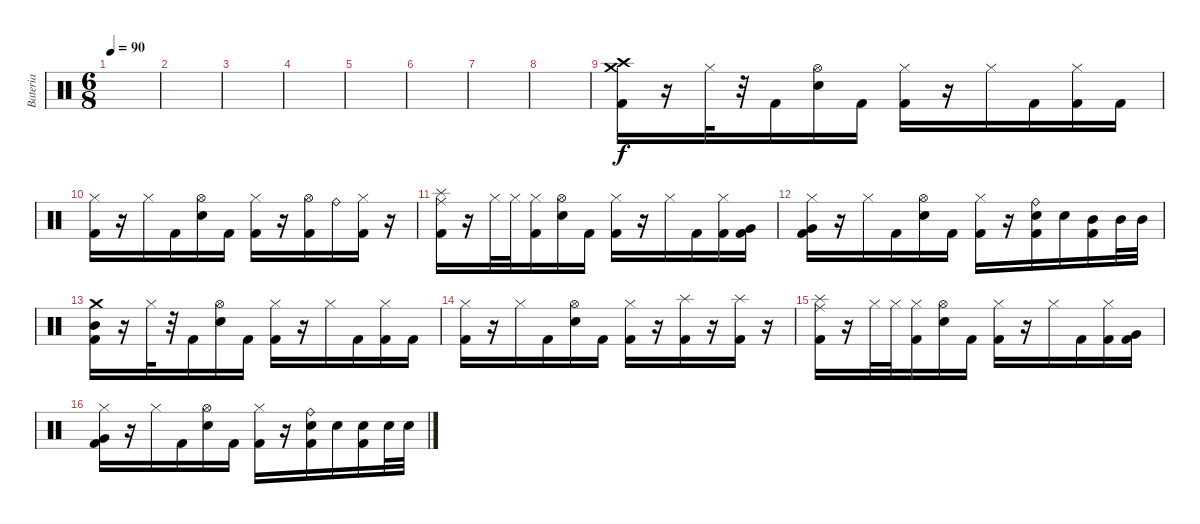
\track ("Bateria" "Bateria") {instrument percussion}
\staff {score}
\articulation defaults
\ts (6 8)
\tempo 90
\clef neutral
\ks c
|
|
|
|
|
|
|
|
("Crash medium (hit)" "Crash high (hit)" "Kick (hit) 2").16 r.16 "Hi-Hat (closed)".32 r.32 "Kick (hit) 2".16 ("Hi-Hat (open)" "Electric Snare (hit)").16 "Kick (hit) 2".16 ("Hi-Hat (closed)" "Kick (hit) 2").16 r.16 "Hi-Hat (closed)".16 "Kick (hit) 2".16 ("Hi-Hat (closed)" "Kick (hit) 2").16 "Kick (hit) 2".16 |
("Hi-Hat (closed)" "Kick (hit) 2").16 r.16 "Hi-Hat (closed)".16 "Kick (hit) 2".16 ("Hi-Hat (open)" "Electric Snare (hit)").16 "Kick (hit) 2".16 ("Hi-Hat (closed)" "Kick (hit) 2").16 r.16 ("Hi-Hat (open)" "Kick (hit) 2").16 "Ride (bell)".16 ("Hi-Hat (closed)" "Kick (hit) 2").16 r.16 |
("Splash (hit)" "Ride (middle)" "Kick (hit) 2").16 r.16 "Hi-Hat (closed)".32 "Hi-Hat (closed)".32 ("Hi-Hat (closed)" "Kick (hit) 2").16 ("Hi-Hat (open)" "Electric Snare (hit)").16 "Kick (hit) 2".16 ("Hi-Hat (closed)" "Kick (hit) 2").16 r.16 "Hi-Hat (closed)".16 "Kick (hit) 2".16 ("Hi-Hat (closed)" "Kick (hit) 2").16 ("Very Low Tom (hit)" "Kick (hit) 2").16 |
("Hi-Hat (closed)" "Very Low Tom (hit)" "Kick (hit) 2").16 r.16 "Hi-Hat (closed)".16 "Kick (hit) 2".16 ("Hi-Hat (open)" "Electric Snare (hit)").16 "Kick (hit) 2".16 ("Hi-Hat (closed)" "Kick (hit) 2").16 r.16 ("Ride (bell)" "Electric Snare (hit)" "Kick (hit) 2").16 "Electric Snare (hit)".16 ("Mid Tom (hit)" "Kick (hit) 2").16 "Mid Tom (hit)".32 "Mid Tom (hit)".32 |
("Crash medium (hit)" "Mid Tom (hit)" "Kick (hit) 2").16 r.16 "Hi-Hat (closed)".32 r.32 "Kick (hit) 2".16 ("Hi-Hat (open)" "Electric Snare (hit)").16 "Kick (hit) 2".16 ("Hi-Hat (closed)" "Kick (hit) 2").16 r.16 "Hi-Hat (closed)".16 "Kick (hit) 2".16 ("Hi-Hat (closed)" "Kick (hit) 2").16 "Kick (hit) 2".16 |
("Hi-Hat (closed)" "Kick (hit) 2").16 r.16 "Hi-Hat (closed)".16 "Kick (hit) 2".16 ("Hi-Hat (open)" "Electric Snare (hit)").16 "Kick (hit) 2".16 ("Hi-Hat (closed)" "Kick (hit) 2").16 r.16 ("Splash (hit)" "Kick (hit) 2").16 r.16 ("Splash (hit)" "Kick (hit) 2").16 r.16 |
("Splash (hit)" "Ride (middle)" "Kick (hit) 2").16 r.16 "Hi-Hat (closed)".32 "Hi-Hat (closed)".32 ("Hi-Hat (closed)" "Kick (hit) 2").16 ("Hi-Hat (open)" "Electric Snare (hit)").16 "Kick (hit) 2".16 ("Hi-Hat (closed)" "Kick (hit) 2").16 r.16 "Hi-Hat (closed)".16 "Kick (hit) 2".16 ("Hi-Hat (closed)" "Kick (hit) 2").16 ("Very Low Tom (hit)" "Kick (hit) 2").16 |
("Hi-Hat (closed)" "Very Low Tom (hit)" "Kick (hit) 2").16 r.16 "Hi-Hat (closed)".16 "Kick (hit) 2".16 ("Hi-Hat (open)" "Electric Snare (hit)").16 "Kick (hit) 2".16 ("Hi-Hat (closed)" "Kick (hit) 2").16 r.16 ("Ride (bell)" "Electric Snare (hit)" "Kick (hit) 2").16 "Electric Snare (hit)".16 ("Electric Snare (hit)" "Kick (hit) 2").16 "Electric Snare (hit)".32 "Electric Snare (hit)".32
